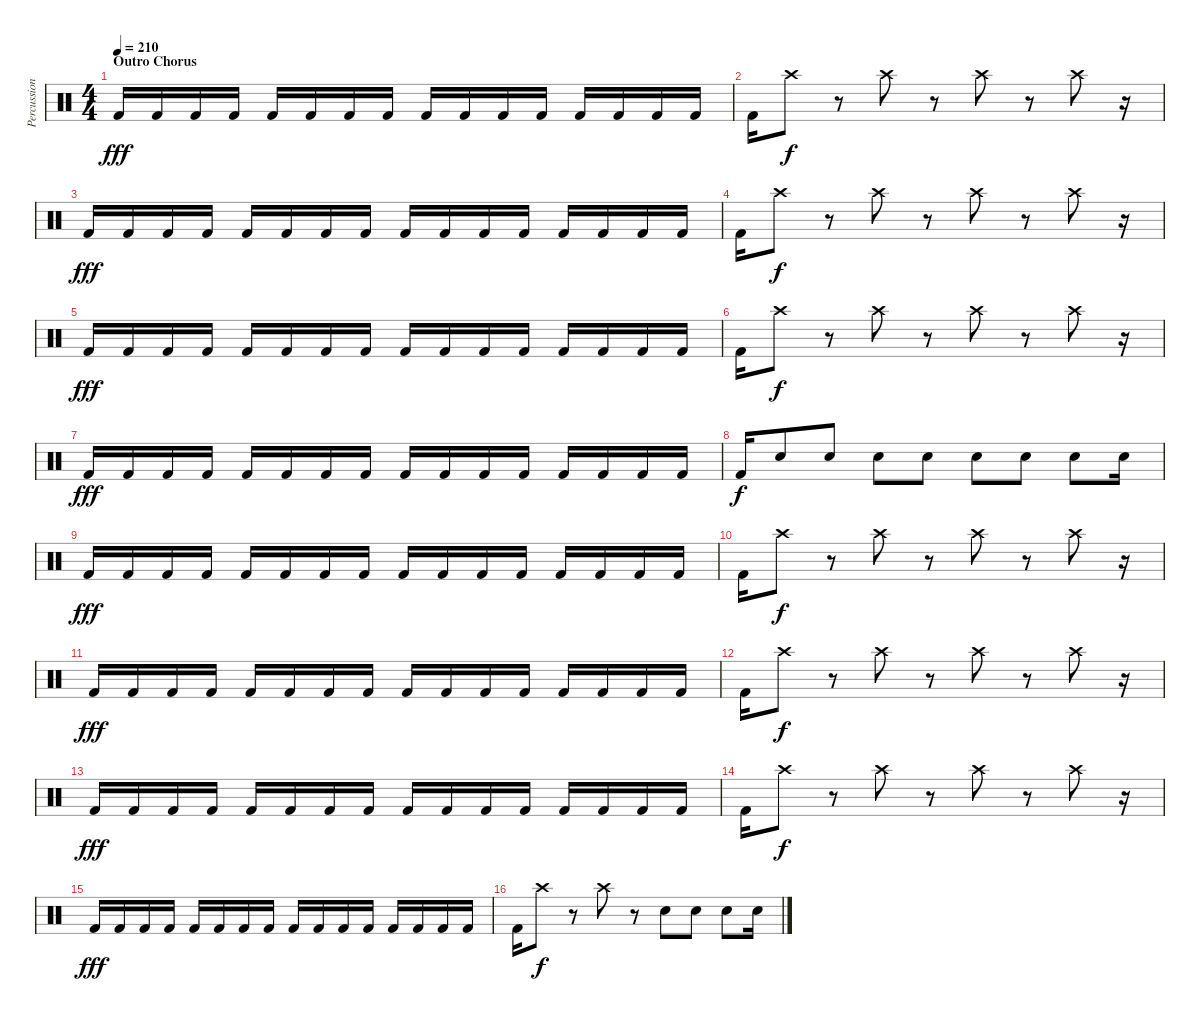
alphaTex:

\track ("Percussion" "Percussion") {instrument percussion}
\staff {score}
\articulation defaults
\ts (4 4)
\section ("" "Outro Chorus")
\tempo 210
\clef neutral
\ks c "Kick (hit) 2".16{dy fff} "Kick (hit) 2".16 "Kick (hit) 2".16 "Kick (hit) 2".16 "Kick (hit) 2".16 "Kick (hit) 2".16 "Kick (hit) 2".16 "Kick (hit) 2".16 "Kick (hit) 2".16 "Kick (hit) 2".16 "Kick (hit) 2".16 "Kick (hit) 2".16 "Kick (hit) 2".16 "Kick (hit) 2".16 "Kick (hit) 2".16 "Kick (hit) 2".16
|
"Kick (hit) 2".16 "Crash high (hit)".8{dy f} r.8 "Crash high (hit)".8 r.8 "Crash high (hit)".8 r.8 "Crash high (hit)".8 r.16 |
"Kick (hit) 2".16{dy fff} "Kick (hit) 2".16 "Kick (hit) 2".16 "Kick (hit) 2".16 "Kick (hit) 2".16 "Kick (hit) 2".16 "Kick (hit) 2".16 "Kick (hit) 2".16 "Kick (hit) 2".16 "Kick (hit) 2".16 "Kick (hit) 2".16 "Kick (hit) 2".16 "Kick (hit) 2".16 "Kick (hit) 2".16 "Kick (hit) 2".16 "Kick (hit) 2".16 |
"Kick (hit) 2".16 "Crash high (hit)".8{dy f} r.8 "Crash high (hit)".8 r.8 "Crash high (hit)".8 r.8 "Crash high (hit)".8 r.16 |
"Kick (hit) 2".16{dy fff} "Kick (hit) 2".16 "Kick (hit) 2".16 "Kick (hit) 2".16 "Kick (hit) 2".16 "Kick (hit) 2".16 "Kick (hit) 2".16 "Kick (hit) 2".16 "Kick (hit) 2".16 "Kick (hit) 2".16 "Kick (hit) 2".16 "Kick (hit) 2".16 "Kick (hit) 2".16 "Kick (hit) 2".16 "Kick (hit) 2".16 "Kick (hit) 2".16 |
"Kick (hit) 2".16 "Crash high (hit)".8{dy f} r.8 "Crash high (hit)".8 r.8 "Crash high (hit)".8 r.8 "Crash high (hit)".8 r.16 |
"Kick (hit) 2".16{dy fff} "Kick (hit) 2".16 "Kick (hit) 2".16 "Kick (hit) 2".16 "Kick (hit) 2".16 "Kick (hit) 2".16 "Kick (hit) 2".16 "Kick (hit) 2".16 "Kick (hit) 2".16 "Kick (hit) 2".16 "Kick (hit) 2".16 "Kick (hit) 2".16 "Kick (hit) 2".16 "Kick (hit) 2".16 "Kick (hit) 2".16 "Kick (hit) 2".16 |
"Kick (hit) 2".16{dy f} "Electric Snare (hit)".8 "Electric Snare (hit)".8 "Electric Snare (hit)".8 "Electric Snare (hit)".8 "Electric Snare (hit)".8 "Electric Snare (hit)".8 "Electric Snare (hit)".8 "Electric Snare (hit)".16 |
"Kick (hit) 2".16{dy fff} "Kick (hit) 2".16 "Kick (hit) 2".16 "Kick (hit) 2".16 "Kick (hit) 2".16 "Kick (hit) 2".16 "Kick (hit) 2".16 "Kick (hit) 2".16 "Kick (hit) 2".16 "Kick (hit) 2".16 "Kick (hit) 2".16 "Kick (hit) 2".16 "Kick (hit) 2".16 "Kick (hit) 2".16 "Kick (hit) 2".16 "Kick (hit) 2".16 |
"Kick (hit) 2".16 "Crash high (hit)".8{dy f} r.8 "Crash high (hit)".8 r.8 "Crash high (hit)".8 r.8 "Crash high (hit)".8 r.16 |
"Kick (hit) 2".16{dy fff} "Kick (hit) 2".16 "Kick (hit) 2".16 "Kick (hit) 2".16 "Kick (hit) 2".16 "Kick (hit) 2".16 "Kick (hit) 2".16 "Kick (hit) 2".16 "Kick (hit) 2".16 "Kick (hit) 2".16 "Kick (hit) 2".16 "Kick (hit) 2".16 "Kick (hit) 2".16 "Kick (hit) 2".16 "Kick (hit) 2".16 "Kick (hit) 2".16 |
"Kick (hit) 2".16 "Crash high (hit)".8{dy f} r.8 "Crash high (hit)".8 r.8 "Crash high (hit)".8 r.8 "Crash high (hit)".8 r.16 |
"Kick (hit) 2".16{dy fff} "Kick (hit) 2".16 "Kick (hit) 2".16 "Kick (hit) 2".16 "Kick (hit) 2".16 "Kick (hit) 2".16 "Kick (hit) 2".16 "Kick (hit) 2".16 "Kick (hit) 2".16 "Kick (hit) 2".16 "Kick (hit) 2".16 "Kick (hit) 2".16 "Kick (hit) 2".16 "Kick (hit) 2".16 "Kick (hit) 2".16 "Kick (hit) 2".16 |
"Kick (hit) 2".16 "Crash high (hit)".8{dy f} r.8 "Crash high (hit)".8 r.8 "Crash high (hit)".8 r.8 "Crash high (hit)".8 r.16 |
"Kick (hit) 2".16{dy fff} "Kick (hit) 2".16 "Kick (hit) 2".16 "Kick (hit) 2".16 "Kick (hit) 2".16 "Kick (hit) 2".16 "Kick (hit) 2".16 "Kick (hit) 2".16 "Kick (hit) 2".16 "Kick (hit) 2".16 "Kick (hit) 2".16 "Kick (hit) 2".16 "Kick (hit) 2".16 "Kick (hit) 2".16 "Kick (hit) 2".16 "Kick (hit) 2".16 |
"Kick (hit) 2".16 "Crash high (hit)".8{dy f} r.8 "Crash high (hit)".8 r.8 "Electric Snare (hit)".8 "Electric Snare (hit)".8 "Electric Snare (hit)".8 "Electric Snare (hit)".16
